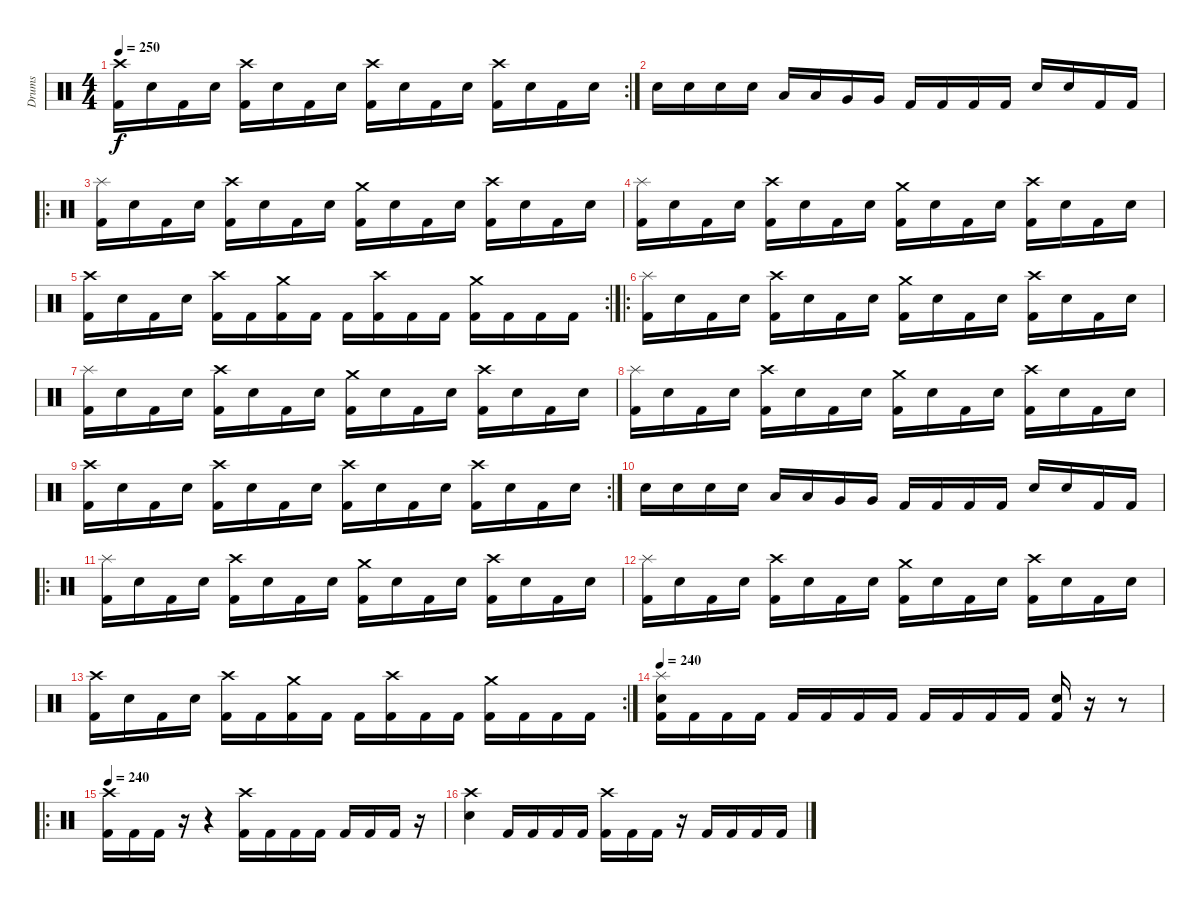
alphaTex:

\track ("Drums" "Drums") {instrument percussion}
\staff {score}
\articulation defaults
\rc 2
\ts (4 4)
\tempo 250
\clef neutral
\ks c
("Kick (hit) 2" "Crash high (hit)").16{dy f} "Electric Snare (hit)".16 "Kick (hit) 2".16 "Electric Snare (hit)".16 ("Kick (hit) 2" "Crash high (hit)").16 "Electric Snare (hit)".16 "Kick (hit) 2".16 "Electric Snare (hit)".16 ("Kick (hit) 2" "Crash high (hit)").16 "Electric Snare (hit)".16 "Kick (hit) 2".16 "Electric Snare (hit)".16 ("Kick (hit) 2" "Crash high (hit)").16 "Electric Snare (hit)".16 "Kick (hit) 2".16 "Electric Snare (hit)".16 |
"Electric Snare (hit)".16 "Electric Snare (hit)".16 "Electric Snare (hit)".16 "Electric Snare (hit)".16 "Low Tom (hit)".16 "Low Tom (hit)".16 "Very Low Tom (hit)".16 "Very Low Tom (hit)".16 "Kick (hit) 2".16 "Kick (hit) 2".16 "Kick (hit) 2".16 "Kick (hit) 2".16 "Electric Snare (hit)".16 "Electric Snare (hit)".16 "Kick (hit) 2".16 "Kick (hit) 2".16 |
\ro
("Kick (hit) 2" "Splash (hit)").16 "Electric Snare (hit)".16 "Kick (hit) 2".16 "Electric Snare (hit)".16 ("Kick (hit) 2" "Crash high (hit)").16 "Electric Snare (hit)".16 "Kick (hit) 2".16 "Electric Snare (hit)".16 ("Kick (hit) 2" "Crash medium (hit)").16 "Electric Snare (hit)".16 "Kick (hit) 2".16 "Electric Snare (hit)".16 ("Kick (hit) 2" "Crash high (hit)").16 "Electric Snare (hit)".16 "Kick (hit) 2".16 "Electric Snare (hit)".16 |
("Kick (hit) 2" "Splash (hit)").16 "Electric Snare (hit)".16 "Kick (hit) 2".16 "Electric Snare (hit)".16 ("Kick (hit) 2" "Crash high (hit)").16 "Electric Snare (hit)".16 "Kick (hit) 2".16 "Electric Snare (hit)".16 ("Kick (hit) 2" "Crash medium (hit)").16 "Electric Snare (hit)".16 "Kick (hit) 2".16 "Electric Snare (hit)".16 ("Kick (hit) 2" "Crash high (hit)").16 "Electric Snare (hit)".16 "Kick (hit) 2".16 "Electric Snare (hit)".16 |
\rc 2
("Kick (hit) 2" "Crash high (hit)").16 "Electric Snare (hit)".16 "Kick (hit) 2".16 "Electric Snare (hit)".16 ("Kick (hit) 2" "Crash high (hit)").16 "Kick (hit) 2".16 ("Kick (hit) 2" "Crash medium (hit)").16 "Kick (hit) 2".16 "Kick (hit) 2".16 ("Kick (hit) 2" "Crash high (hit)").16 "Kick (hit) 2".16 "Kick (hit) 2".16 ("Kick (hit) 2" "Crash medium (hit)").16 "Kick (hit) 2".16 "Kick (hit) 2".16 "Kick (hit) 2".16 |
\ro
("Kick (hit) 2" "Splash (hit)").16 "Electric Snare (hit)".16 "Kick (hit) 2".16 "Electric Snare (hit)".16 ("Kick (hit) 2" "Crash high (hit)").16 "Electric Snare (hit)".16 "Kick (hit) 2".16 "Electric Snare (hit)".16 ("Kick (hit) 2" "Crash medium (hit)").16 "Electric Snare (hit)".16 "Kick (hit) 2".16 "Electric Snare (hit)".16 ("Kick (hit) 2" "Crash high (hit)").16 "Electric Snare (hit)".16 "Kick (hit) 2".16 "Electric Snare (hit)".16 |
("Kick (hit) 2" "Splash (hit)").16 "Electric Snare (hit)".16 "Kick (hit) 2".16 "Electric Snare (hit)".16 ("Kick (hit) 2" "Crash high (hit)").16 "Electric Snare (hit)".16 "Kick (hit) 2".16 "Electric Snare (hit)".16 ("Kick (hit) 2" "Crash medium (hit)").16 "Electric Snare (hit)".16 "Kick (hit) 2".16 "Electric Snare (hit)".16 ("Kick (hit) 2" "Crash high (hit)").16 "Electric Snare (hit)".16 "Kick (hit) 2".16 "Electric Snare (hit)".16 |
("Kick (hit) 2" "Splash (hit)").16 "Electric Snare (hit)".16 "Kick (hit) 2".16 "Electric Snare (hit)".16 ("Kick (hit) 2" "Crash high (hit)").16 "Electric Snare (hit)".16 "Kick (hit) 2".16 "Electric Snare (hit)".16 ("Kick (hit) 2" "Crash medium (hit)").16 "Electric Snare (hit)".16 "Kick (hit) 2".16 "Electric Snare (hit)".16 ("Kick (hit) 2" "Crash high (hit)").16 "Electric Snare (hit)".16 "Kick (hit) 2".16 "Electric Snare (hit)".16 |
\rc 2
("Kick (hit) 2" "Crash high (hit)").16 "Electric Snare (hit)".16 "Kick (hit) 2".16 "Electric Snare (hit)".16 ("Kick (hit) 2" "Crash high (hit)").16 "Electric Snare (hit)".16 "Kick (hit) 2".16 "Electric Snare (hit)".16 ("Kick (hit) 2" "Crash high (hit)").16 "Electric Snare (hit)".16 "Kick (hit) 2".16 "Electric Snare (hit)".16 ("Kick (hit) 2" "Crash high (hit)").16 "Electric Snare (hit)".16 "Kick (hit) 2".16 "Electric Snare (hit)".16 |
"Electric Snare (hit)".16 "Electric Snare (hit)".16 "Electric Snare (hit)".16 "Electric Snare (hit)".16 "Low Tom (hit)".16 "Low Tom (hit)".16 "Very Low Tom (hit)".16 "Very Low Tom (hit)".16 "Kick (hit) 2".16 "Kick (hit) 2".16 "Kick (hit) 2".16 "Kick (hit) 2".16 "Electric Snare (hit)".16 "Electric Snare (hit)".16 "Kick (hit) 2".16 "Kick (hit) 2".16 |
\ro
("Kick (hit) 2" "Splash (hit)").16 "Electric Snare (hit)".16 "Kick (hit) 2".16 "Electric Snare (hit)".16 ("Kick (hit) 2" "Crash high (hit)").16 "Electric Snare (hit)".16 "Kick (hit) 2".16 "Electric Snare (hit)".16 ("Kick (hit) 2" "Crash medium (hit)").16 "Electric Snare (hit)".16 "Kick (hit) 2".16 "Electric Snare (hit)".16 ("Kick (hit) 2" "Crash high (hit)").16 "Electric Snare (hit)".16 "Kick (hit) 2".16 "Electric Snare (hit)".16 |
("Kick (hit) 2" "Splash (hit)").16 "Electric Snare (hit)".16 "Kick (hit) 2".16 "Electric Snare (hit)".16 ("Kick (hit) 2" "Crash high (hit)").16 "Electric Snare (hit)".16 "Kick (hit) 2".16 "Electric Snare (hit)".16 ("Kick (hit) 2" "Crash medium (hit)").16 "Electric Snare (hit)".16 "Kick (hit) 2".16 "Electric Snare (hit)".16 ("Kick (hit) 2" "Crash high (hit)").16 "Electric Snare (hit)".16 "Kick (hit) 2".16 "Electric Snare (hit)".16 |
\rc 2
("Kick (hit) 2" "Crash high (hit)").16 "Electric Snare (hit)".16 "Kick (hit) 2".16 "Electric Snare (hit)".16 ("Kick (hit) 2" "Crash high (hit)").16 "Kick (hit) 2".16 ("Kick (hit) 2" "Crash medium (hit)").16 "Kick (hit) 2".16 "Kick (hit) 2".16 ("Kick (hit) 2" "Crash high (hit)").16 "Kick (hit) 2".16 "Kick (hit) 2".16 ("Kick (hit) 2" "Crash medium (hit)").16 "Kick (hit) 2".16 "Kick (hit) 2".16 "Kick (hit) 2".16 |
\tempo 240
("Kick (hit) 2" "Electric Snare (hit)" "Splash (hit)").16 "Kick (hit) 2".16 "Kick (hit) 2".16 "Kick (hit) 2".16 "Kick (hit) 2".16 "Kick (hit) 2".16 "Kick (hit) 2".16 "Kick (hit) 2".16 "Kick (hit) 2".16 "Kick (hit) 2".16 "Kick (hit) 2".16 "Kick (hit) 2".16 ("Kick (hit) 2" "Electric Snare (hit)").16 r.16 r.8 |
\ro
\tempo 240
("Kick (hit) 2" "Crash high (hit)").16 "Kick (hit) 2".16 "Kick (hit) 2".16 r.16 r.4 ("Kick (hit) 2" "Crash high (hit)").16 "Kick (hit) 2".16 "Kick (hit) 2".16 "Kick (hit) 2".16 "Kick (hit) 2".16 "Kick (hit) 2".16 "Kick (hit) 2".16 r.16 |
("Electric Snare (hit)" "Crash high (hit)").4 "Kick (hit) 2".16 "Kick (hit) 2".16 "Kick (hit) 2".16 "Kick (hit) 2".16 ("Kick (hit) 2" "Crash high (hit)").16 "Kick (hit) 2".16 "Kick (hit) 2".16 r.16 "Kick (hit) 2".16 "Kick (hit) 2".16 "Kick (hit) 2".16 "Kick (hit) 2".16
